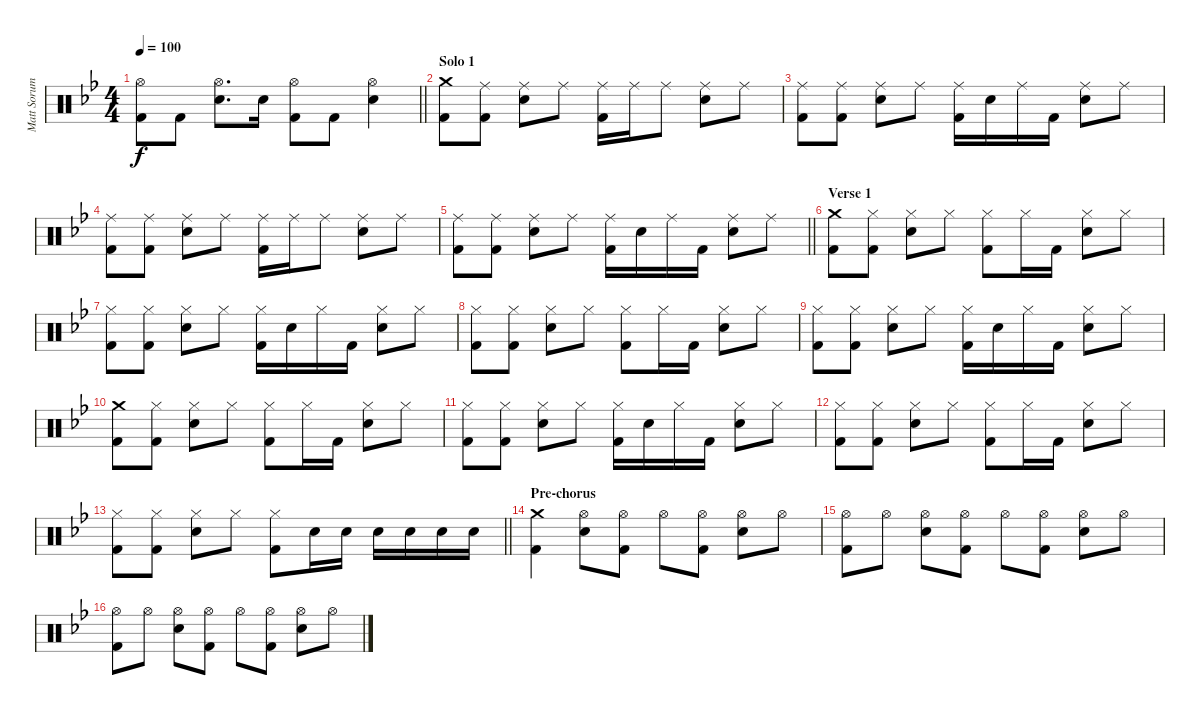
\track ("Matt Sorum" "Matt Sorum") {instrument percussion}
\staff {score}
\articulation defaults
\ts (4 4)
\tempo 100
\clef neutral
\barLineRight lightlight
\ks bb
("Hi-Hat (open)" "Kick (hit) 2").8{dy f} "Kick (hit) 2".8 ("Hi-Hat (open)" "Electric Snare (hit)").8{d} "Electric Snare (hit)".16 ("Hi-Hat (open)" "Kick (hit) 2").8 "Kick (hit) 2".8 ("Hi-Hat (open)" "Electric Snare (hit)").4 |
\section ("" "Solo 1")
("Crash medium (hit)" "Kick (hit) 2").8 ("Ride (middle)" "Kick (hit) 2").8 ("Ride (middle)" "Electric Snare (hit)").8 "Ride (middle)".8 ("Ride (middle)" "Kick (hit) 2").16 "Ride (middle)".16 "Ride (middle)".8 ("Ride (middle)" "Electric Snare (hit)").8 "Ride (middle)".8 |
("Ride (middle)" "Kick (hit) 2").8 ("Ride (middle)" "Kick (hit) 2").8 ("Ride (middle)" "Electric Snare (hit)").8 "Ride (middle)".8 ("Ride (middle)" "Kick (hit) 2").16 "Electric Snare (hit)".16 "Ride (middle)".16 "Kick (hit) 2".16 ("Ride (middle)" "Electric Snare (hit)").8 "Ride (middle)".8 |
("Ride (middle)" "Kick (hit) 2").8 ("Ride (middle)" "Kick (hit) 2").8 ("Ride (middle)" "Electric Snare (hit)").8 "Ride (middle)".8 ("Ride (middle)" "Kick (hit) 2").16 "Ride (middle)".16 "Ride (middle)".8 ("Ride (middle)" "Electric Snare (hit)").8 "Ride (middle)".8 |
\barLineRight lightlight
("Ride (middle)" "Kick (hit) 2").8 ("Ride (middle)" "Kick (hit) 2").8 ("Ride (middle)" "Electric Snare (hit)").8 "Ride (middle)".8 ("Ride (middle)" "Kick (hit) 2").16 "Electric Snare (hit)".16 "Ride (middle)".16 "Kick (hit) 2".16 ("Ride (middle)" "Electric Snare (hit)").8 "Ride (middle)".8 |
\section ("" "Verse 1")
("Crash medium (hit)" "Kick (hit) 2").8 ("Hi-Hat (closed)" "Kick (hit) 2").8 ("Hi-Hat (closed)" "Electric Snare (hit)").8 "Hi-Hat (closed)".8 ("Hi-Hat (closed)" "Kick (hit) 2").8 "Hi-Hat (closed)".16 "Kick (hit) 2".16 ("Hi-Hat (closed)" "Electric Snare (hit)").8 "Hi-Hat (closed)".8 |
("Hi-Hat (closed)" "Kick (hit) 2").8 ("Hi-Hat (closed)" "Kick (hit) 2").8 ("Hi-Hat (closed)" "Electric Snare (hit)").8 "Hi-Hat (closed)".8 ("Hi-Hat (closed)" "Kick (hit) 2").16 "Electric Snare (hit)".16 "Hi-Hat (closed)".16 "Kick (hit) 2".16 ("Hi-Hat (closed)" "Electric Snare (hit)").8 "Hi-Hat (closed)".8 |
("Hi-Hat (closed)" "Kick (hit) 2").8 ("Hi-Hat (closed)" "Kick (hit) 2").8 ("Hi-Hat (closed)" "Electric Snare (hit)").8 "Hi-Hat (closed)".8 ("Hi-Hat (closed)" "Kick (hit) 2").8 "Hi-Hat (closed)".16 "Kick (hit) 2".16 ("Hi-Hat (closed)" "Electric Snare (hit)").8 "Hi-Hat (closed)".8 |
("Hi-Hat (closed)" "Kick (hit) 2").8 ("Hi-Hat (closed)" "Kick (hit) 2").8 ("Hi-Hat (closed)" "Electric Snare (hit)").8 "Hi-Hat (closed)".8 ("Hi-Hat (closed)" "Kick (hit) 2").16 "Electric Snare (hit)".16 "Hi-Hat (closed)".16 "Kick (hit) 2".16 ("Hi-Hat (closed)" "Electric Snare (hit)").8 "Hi-Hat (closed)".8 |
("Crash medium (hit)" "Kick (hit) 2").8 ("Hi-Hat (closed)" "Kick (hit) 2").8 ("Hi-Hat (closed)" "Electric Snare (hit)").8 "Hi-Hat (closed)".8 ("Hi-Hat (closed)" "Kick (hit) 2").8 "Hi-Hat (closed)".16 "Kick (hit) 2".16 ("Hi-Hat (closed)" "Electric Snare (hit)").8 "Hi-Hat (closed)".8 |
("Hi-Hat (closed)" "Kick (hit) 2").8 ("Hi-Hat (closed)" "Kick (hit) 2").8 ("Hi-Hat (closed)" "Electric Snare (hit)").8 "Hi-Hat (closed)".8 ("Hi-Hat (closed)" "Kick (hit) 2").16 "Electric Snare (hit)".16 "Hi-Hat (closed)".16 "Kick (hit) 2".16 ("Hi-Hat (closed)" "Electric Snare (hit)").8 "Hi-Hat (closed)".8 |
("Hi-Hat (closed)" "Kick (hit) 2").8 ("Hi-Hat (closed)" "Kick (hit) 2").8 ("Hi-Hat (closed)" "Electric Snare (hit)").8 "Hi-Hat (closed)".8 ("Hi-Hat (closed)" "Kick (hit) 2").8 "Hi-Hat (closed)".16 "Kick (hit) 2".16 ("Hi-Hat (closed)" "Electric Snare (hit)").8 "Hi-Hat (closed)".8 |
\barLineRight lightlight
("Hi-Hat (closed)" "Kick (hit) 2").8 ("Hi-Hat (closed)" "Kick (hit) 2").8 ("Hi-Hat (closed)" "Electric Snare (hit)").8 "Hi-Hat (closed)".8 ("Hi-Hat (closed)" "Kick (hit) 2").8 "Electric Snare (hit)".16 "Electric Snare (hit)".16 "Electric Snare (hit)".16 "Electric Snare (hit)".16 "Electric Snare (hit)".16 "Electric Snare (hit)".16 |
\section ("" "Pre-chorus")
("Crash medium (hit)" "Kick (hit) 2").4 ("Hi-Hat (open)" "Electric Snare (hit)").8 ("Hi-Hat (open)" "Kick (hit) 2").8 "Hi-Hat (open)".8 ("Hi-Hat (open)" "Kick (hit) 2").8 ("Hi-Hat (open)" "Electric Snare (hit)").8 "Hi-Hat (open)".8 |
("Hi-Hat (open)" "Kick (hit) 2").8 "Hi-Hat (open)".8 ("Hi-Hat (open)" "Electric Snare (hit)").8 ("Hi-Hat (open)" "Kick (hit) 2").8 "Hi-Hat (open)".8 ("Hi-Hat (open)" "Kick (hit) 2").8 ("Hi-Hat (open)" "Electric Snare (hit)").8 "Hi-Hat (open)".8 |
("Hi-Hat (open)" "Kick (hit) 2").8 "Hi-Hat (open)".8 ("Hi-Hat (open)" "Electric Snare (hit)").8 ("Hi-Hat (open)" "Kick (hit) 2").8 "Hi-Hat (open)".8 ("Hi-Hat (open)" "Kick (hit) 2").8 ("Hi-Hat (open)" "Electric Snare (hit)").8 "Hi-Hat (open)".8
